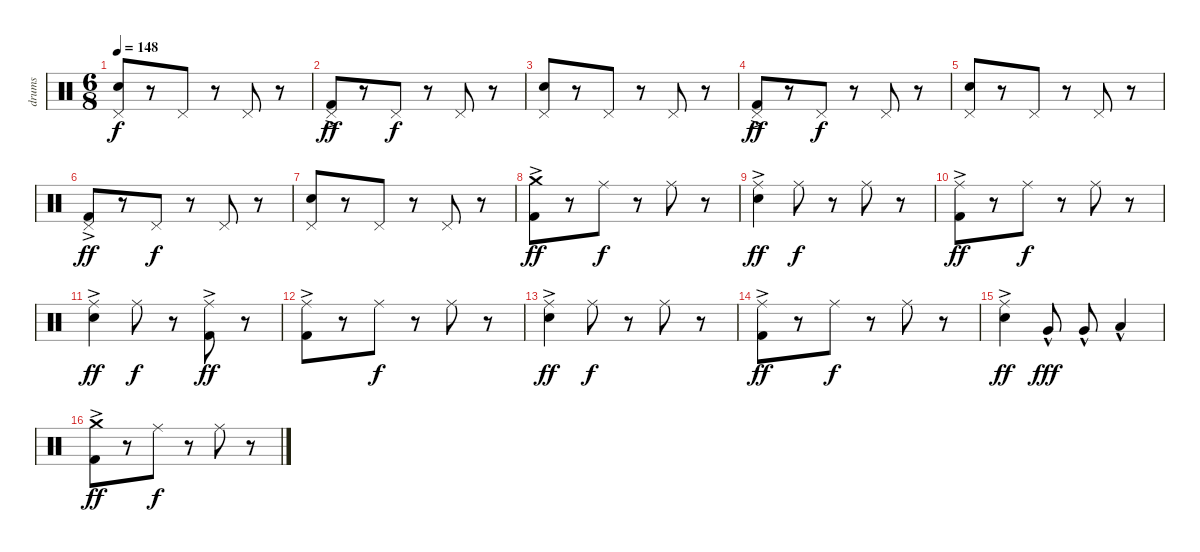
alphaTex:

\track ("drums" "drums") {instrument percussion}
\staff {score}
\articulation defaults
\ts (6 8)
\tempo 148
\clef neutral
\ks c
("Pedal Hi-Hat (hit)" "Electric Snare (hit)").8{dy f} r.8 "Pedal Hi-Hat (hit)".8 r.8 "Pedal Hi-Hat (hit)".8 r.8 |
("Pedal Hi-Hat (hit)" "Kick (hit) 2"{ac}).8{dy ff} r.8 "Pedal Hi-Hat (hit)".8{dy f} r.8 "Pedal Hi-Hat (hit)".8 r.8 |
("Pedal Hi-Hat (hit)" "Electric Snare (hit)").8 r.8 "Pedal Hi-Hat (hit)".8 r.8 "Pedal Hi-Hat (hit)".8 r.8 |
("Pedal Hi-Hat (hit)" "Kick (hit) 2"{ac}).8{dy ff} r.8 "Pedal Hi-Hat (hit)".8{dy f} r.8 "Pedal Hi-Hat (hit)".8 r.8 |
("Pedal Hi-Hat (hit)" "Electric Snare (hit)").8 r.8 "Pedal Hi-Hat (hit)".8 r.8 "Pedal Hi-Hat (hit)".8 r.8 |
("Pedal Hi-Hat (hit)" "Kick (hit) 2"{ac}).8{dy ff} r.8 "Pedal Hi-Hat (hit)".8{dy f} r.8 "Pedal Hi-Hat (hit)".8 r.8 |
("Pedal Hi-Hat (hit)" "Electric Snare (hit)").8 r.8 "Pedal Hi-Hat (hit)".8 r.8 "Pedal Hi-Hat (hit)".8 r.8 |
("Crash medium (hit)" "Kick (hit) 2"{ac}).8{dy ff} r.8 "Ride (middle)".8{dy f} r.8 "Ride (middle)".8 r.8 |
("Ride (middle)" "Electric Snare (hit)"{ac}).4{dy ff} "Ride (middle)".8{dy f} r.8 "Ride (middle)".8 r.8 |
("Ride (middle)" "Kick (hit) 2"{ac}).8{dy ff} r.8 "Ride (middle)".8{dy f} r.8 "Ride (middle)".8 r.8 |
("Ride (middle)" "Electric Snare (hit)"{ac}).4{dy ff} "Ride (middle)".8{dy f} r.8 ("Ride (middle)" "Kick (hit) 2"{ac}).8{dy ff} r.8 |
("Ride (middle)" "Kick (hit) 2"{ac}).8 r.8 "Ride (middle)".8{dy f} r.8 "Ride (middle)".8 r.8 |
("Ride (middle)" "Electric Snare (hit)"{ac}).4{dy ff} "Ride (middle)".8{dy f} r.8 "Ride (middle)".8 r.8 |
("Ride (middle)" "Kick (hit) 2"{ac}).8{dy ff} r.8 "Ride (middle)".8{dy f} r.8 "Ride (middle)".8 r.8 |
("Ride (middle)" "Electric Snare (hit)"{ac}).4{dy ff} "Very Low Tom (hit)"{hac}.8{dy fff} "Very Low Tom (hit)"{hac}.8 "Low Floor Tom (hit)"{hac}.4 |
("Crash medium (hit)" "Kick (hit) 2"{ac}).8{dy ff} r.8 "Ride (middle)".8{dy f} r.8 "Ride (middle)".8 r.8
